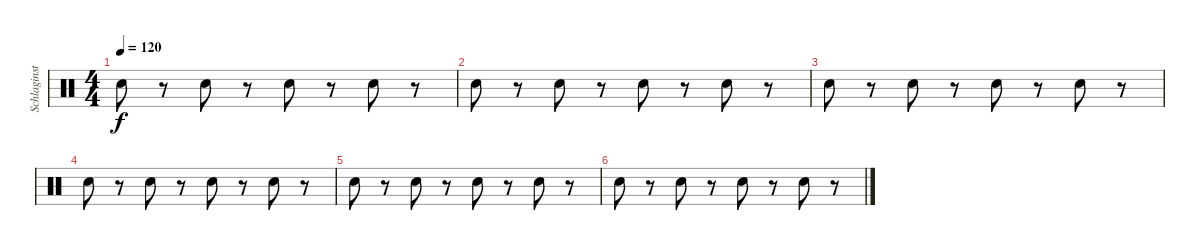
\track ("Schlaginstrumente - Auswahl" "Schlaginst") {instrument percussion}
\staff {score}
\articulation defaults
\ts (4 4)
\tempo 120
\clef neutral
\ks c "Snare (hit) 2".8{dy f}
r.8 "Snare (hit) 2".8 r.8 "Snare (hit) 2".8 r.8 "Snare (hit) 2".8 r.8 |
"Snare (hit) 2".8 r.8 "Snare (hit) 2".8 r.8 "Snare (hit) 2".8 r.8 "Snare (hit) 2".8 r.8 |
"Snare (hit) 2".8 r.8 "Snare (hit) 2".8 r.8 "Snare (hit) 2".8 r.8 "Snare (hit) 2".8 r.8 |
"Snare (hit) 2".8 r.8 "Snare (hit) 2".8 r.8 "Snare (hit) 2".8 r.8 "Snare (hit) 2".8 r.8 |
"Snare (hit) 2".8 r.8 "Snare (hit) 2".8 r.8 "Snare (hit) 2".8 r.8 "Snare (hit) 2".8 r.8 |
"Snare (hit) 2".8 r.8 "Snare (hit) 2".8 r.8 "Snare (hit) 2".8 r.8 "Snare (hit) 2".8 r.8
